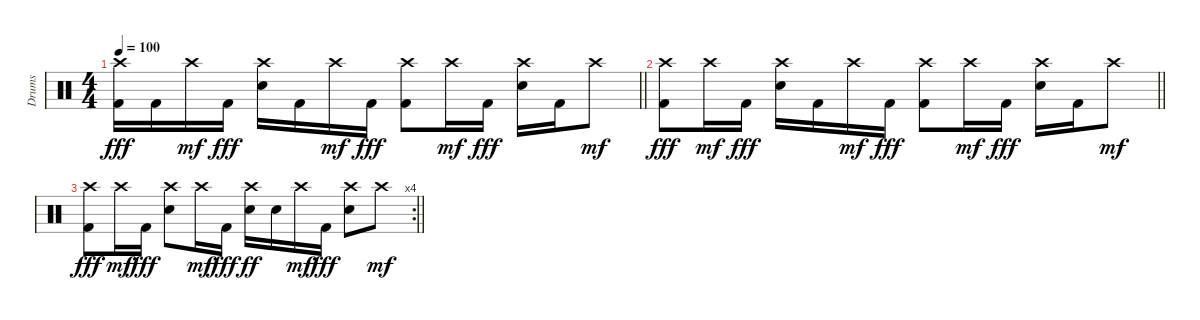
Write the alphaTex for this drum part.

\track ("Drums" "Drums") {instrument percussion}
\staff {score}
\articulation defaults
\ts (4 4)
\tempo 100
\clef neutral
\barLineRight lightlight
\ks c
("Crash high (hit)" "Kick (hit) 2").16{dy fff} "Kick (hit) 2".16 "Crash high (hit)".16{dy mf} "Kick (hit) 2".16{dy fff} ("Crash high (hit)" "Electric Snare (hit)").16 "Kick (hit) 2".16 "Crash high (hit)".16{dy mf} "Kick (hit) 2".16{dy fff} ("Crash high (hit)" "Kick (hit) 2").8 "Crash high (hit)".16{dy mf} "Kick (hit) 2".16{dy fff} ("Crash high (hit)" "Electric Snare (hit)").16 "Kick (hit) 2".16 "Crash high (hit)".8{dy mf} |
\barLineRight lightlight
("Crash high (hit)" "Kick (hit) 2").8{dy fff} "Crash high (hit)".16{dy mf} "Kick (hit) 2".16{dy fff} ("Crash high (hit)" "Electric Snare (hit)").16 "Kick (hit) 2".16 "Crash high (hit)".16{dy mf} "Kick (hit) 2".16{dy fff} ("Crash high (hit)" "Kick (hit) 2").8 "Crash high (hit)".16{dy mf} "Kick (hit) 2".16{dy fff} ("Crash high (hit)" "Electric Snare (hit)").16 "Kick (hit) 2".16 "Crash high (hit)".8{dy mf} |
\rc 4
\barLineRight lightlight
("Crash high (hit)" "Kick (hit) 2").8{dy fff} "Crash high (hit)".16{dy mf} "Kick (hit) 2".16{dy fff} ("Crash high (hit)" "Electric Snare (hit)").8 "Crash high (hit)".16{dy mf} "Kick (hit) 2".16{dy fff} ("Crash high (hit)" "Electric Snare (hit)").16{dy ff} "Electric Snare (hit)".16 "Crash high (hit)".16{dy mf} "Kick (hit) 2".16{dy fff} ("Crash high (hit)" "Electric Snare (hit)").8 "Crash high (hit)".8{dy mf}
